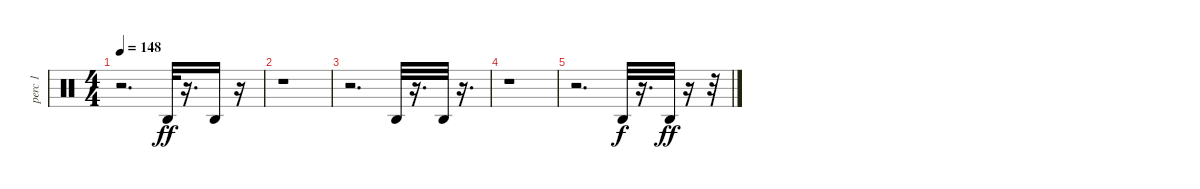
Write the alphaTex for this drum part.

\track ("perc 1              " "perc 1    ") {instrument percussion}
\staff {score}
\articulation defaults
\ts (4 4)
\tempo 148
\clef neutral
\ks c
r.2{d dy fff} "Agogo high (hit)".32{dy ff} r.16{d} "Agogo high (hit)".16 r.16 |
r.1 |
r.2{d} "Agogo high (hit)".32 r.16{d} "Agogo high (hit)".32 r.16{d} |
r.1 |
r.2{d} "Agogo high (hit)".32{dy f} r.16{d} "Agogo high (hit)".32{dy ff} r.16 r.32
